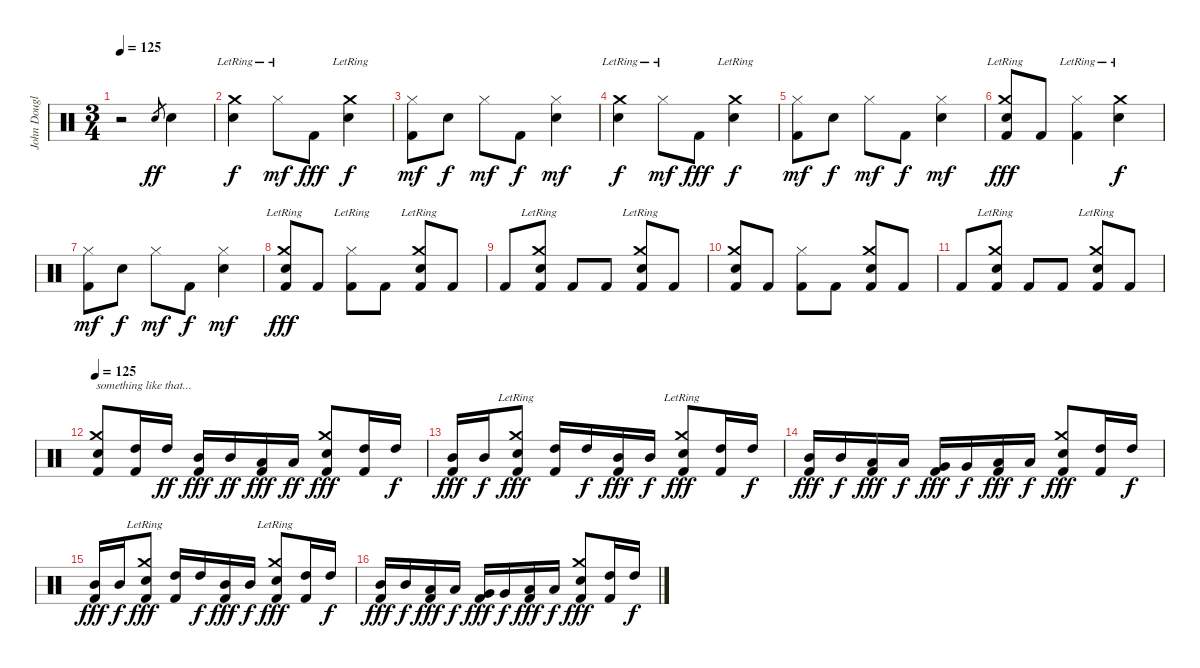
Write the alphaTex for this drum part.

\track ("John Douglas (Drums)" "John Dougl") {instrument percussion}
\staff {score}
\articulation defaults
\ts (3 4)
\tempo 125
\clef neutral
\ks c
r.2{dy fff} "Snare (hit) 2".8{gr dy ff} "Snare (hit) 2".4 |
("Crash medium (hit)"{lr} "Snare (hit) 2").4{dy f} "Hi-Hat (closed)"{lr}.8{dy mf} "Kick (hit) 2".8{dy fff} ("Crash medium (hit)"{lr} "Snare (hit) 2").4{dy f} |
("Hi-Hat (closed)" "Kick (hit) 2").8{dy mf} "Snare (hit) 2".8{dy f} "Hi-Hat (closed)".8{dy mf} "Kick (hit) 2".8{dy f} ("Hi-Hat (closed)" "Snare (hit) 2").4{dy mf} |
("Crash medium (hit)"{lr} "Snare (hit) 2").4{dy f} "Hi-Hat (closed)"{lr}.8{dy mf} "Kick (hit) 2".8{dy fff} ("Crash medium (hit)"{lr} "Snare (hit) 2").4{dy f} |
("Hi-Hat (closed)" "Kick (hit) 2").8{dy mf} "Snare (hit) 2".8{dy f} "Hi-Hat (closed)".8{dy mf} "Kick (hit) 2".8{dy f} ("Hi-Hat (closed)" "Snare (hit) 2").4{dy mf} |
("Crash medium (hit)"{lr} "Snare (hit) 2" "Kick (hit) 2").8{dy fff} "Kick (hit) 2".8 ("Hi-Hat (closed)"{lr} "Kick (hit) 2").4 ("Crash medium (hit)"{lr} "Snare (hit) 2").4{dy f} |
("Hi-Hat (closed)" "Kick (hit) 2").8{dy mf} "Snare (hit) 2".8{dy f} "Hi-Hat (closed)".8{dy mf} "Kick (hit) 2".8{dy f} ("Hi-Hat (closed)" "Snare (hit) 2").4{dy mf} |
("Crash medium (hit)"{lr} "Snare (hit) 2" "Kick (hit) 2").8{dy fff} "Kick (hit) 2".8 ("Hi-Hat (closed)"{lr} "Kick (hit) 2").8 "Kick (hit) 2".8 ("Crash medium (hit)"{lr} "Snare (hit) 2" "Kick (hit) 2").8 "Kick (hit) 2".8 |
"Kick (hit) 2".8 ("Crash medium (hit)"{lr} "Snare (hit) 2" "Kick (hit) 2").8 "Kick (hit) 2".8 "Kick (hit) 2".8 ("Crash medium (hit)"{lr} "Snare (hit) 2" "Kick (hit) 2").8 "Kick (hit) 2".8 |
("Crash medium (hit)" "Snare (hit) 2" "Kick (hit) 2").8 "Kick (hit) 2".8 ("Hi-Hat (closed)" "Kick (hit) 2").8 "Kick (hit) 2".8 ("Crash medium (hit)" "Snare (hit) 2" "Kick (hit) 2").8 "Kick (hit) 2".8 |
"Kick (hit) 2".8 ("Crash medium (hit)"{lr} "Snare (hit) 2" "Kick (hit) 2").8 "Kick (hit) 2".8 "Kick (hit) 2".8 ("Crash medium (hit)"{lr} "Snare (hit) 2" "Kick (hit) 2").8 "Kick (hit) 2".8 |
\tempo 125
("Crash medium (hit)" "Snare (hit) 2" "Kick (hit) 2").8{txt "something like that..."} ("High Tom (hit)" "Kick (hit) 2").16 "High Tom (hit)".16{dy ff} ("Mid Tom (hit)" "Kick (hit) 2").16{dy fff} "Mid Tom (hit)".16{dy ff} ("Low Tom (hit)" "Kick (hit) 2").16{dy fff} "Low Tom (hit)".16{dy ff} ("Crash medium (hit)" "Snare (hit) 2" "Kick (hit) 2").8{dy fff} ("High Tom (hit)" "Kick (hit) 2").16 "High Tom (hit)".16{dy f} |
("Mid Tom (hit)" "Kick (hit) 2").16{dy fff} "Mid Tom (hit)".16{dy f} ("Crash medium (hit)"{lr} "Snare (hit) 2" "Kick (hit) 2").8{dy fff} ("High Tom (hit)" "Kick (hit) 2").16 "High Tom (hit)".16{dy f} ("Mid Tom (hit)" "Kick (hit) 2").16{dy fff} "Mid Tom (hit)".16{dy f} ("Crash medium (hit)"{lr} "Snare (hit) 2" "Kick (hit) 2").8{dy fff} ("High Tom (hit)" "Kick (hit) 2").16 "High Tom (hit)".16{dy f} |
("Mid Tom (hit)" "Kick (hit) 2").16{dy fff} "Mid Tom (hit)".16{dy f} ("Low Tom (hit)" "Kick (hit) 2").16{dy fff} "Low Tom (hit)".16{dy f} ("Very Low Tom (hit)" "Kick (hit) 2").16{dy fff} "Very Low Tom (hit)".16{dy f} ("Low Floor Tom (hit)" "Kick (hit) 2").16{dy fff} "Low Floor Tom (hit)".16{dy f} ("Crash medium (hit)" "Snare (hit) 2" "Kick (hit) 2").8{dy fff} ("High Tom (hit)" "Kick (hit) 2").16 "High Tom (hit)".16{dy f} |
("Mid Tom (hit)" "Kick (hit) 2").16{dy fff} "Mid Tom (hit)".16{dy f} ("Crash medium (hit)"{lr} "Snare (hit) 2" "Kick (hit) 2").8{dy fff} ("High Tom (hit)" "Kick (hit) 2").16 "High Tom (hit)".16{dy f} ("Mid Tom (hit)" "Kick (hit) 2").16{dy fff} "Mid Tom (hit)".16{dy f} ("Crash medium (hit)"{lr} "Snare (hit) 2" "Kick (hit) 2").8{dy fff} ("High Tom (hit)" "Kick (hit) 2").16 "High Tom (hit)".16{dy f} |
("Mid Tom (hit)" "Kick (hit) 2").16{dy fff} "Mid Tom (hit)".16{dy f} ("Low Tom (hit)" "Kick (hit) 2").16{dy fff} "Low Tom (hit)".16{dy f} ("Very Low Tom (hit)" "Kick (hit) 2").16{dy fff} "Very Low Tom (hit)".16{dy f} ("Low Floor Tom (hit)" "Kick (hit) 2").16{dy fff} "Low Floor Tom (hit)".16{dy f} ("Crash medium (hit)" "Snare (hit) 2" "Kick (hit) 2").8{dy fff} ("High Tom (hit)" "Kick (hit) 2").16 "High Tom (hit)".16{dy f}
